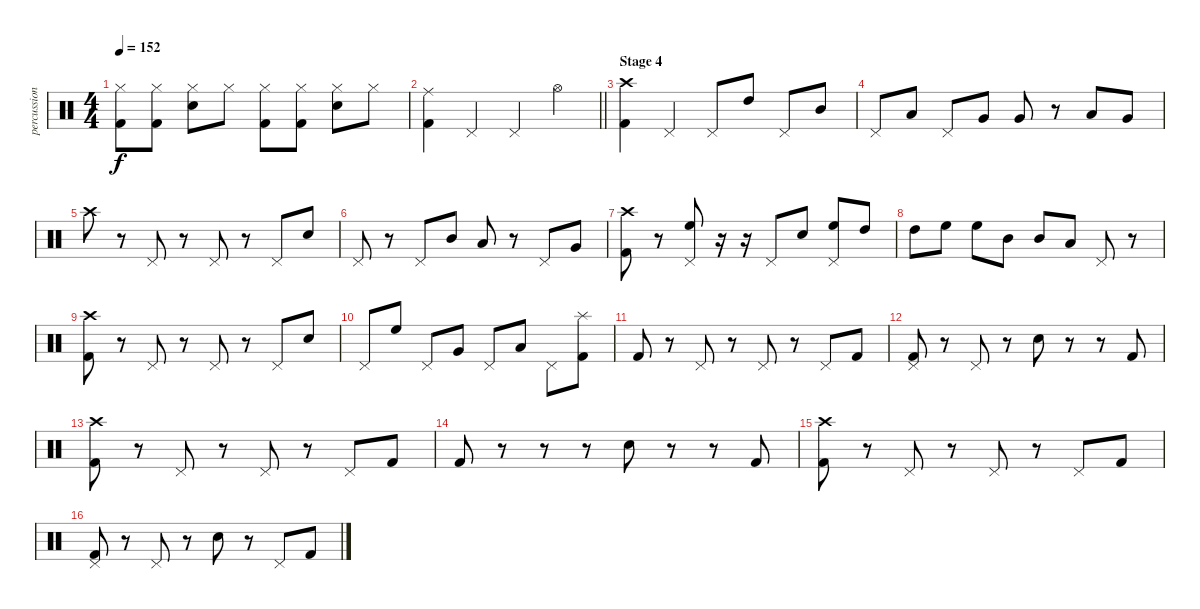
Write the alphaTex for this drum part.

\track ("percussion" "percussion") {instrument percussion}
\staff {score}
\articulation defaults
\ts (4 4)
\tempo 152
\clef neutral
\ks c
("Hi-Hat (closed)" "Kick (hit) 2").8{dy f} ("Hi-Hat (closed)" "Kick (hit) 2").8 ("Electric Snare (hit)" "Hi-Hat (closed)").8 "Hi-Hat (closed)".8 ("Hi-Hat (closed)" "Kick (hit) 2").8 ("Hi-Hat (closed)" "Kick (hit) 2").8 ("Electric Snare (hit)" "Hi-Hat (closed)").8 "Hi-Hat (closed)".8 |
\barLineRight lightlight
("Ride (middle)" "Kick (hit) 2").4 "Pedal Hi-Hat (hit)".4 "Pedal Hi-Hat (hit)".4 "Hi-Hat (open)".4 |
\section ("" "Stage 4")
("Crash high (hit)" "Kick (hit) 2").4 "Pedal Hi-Hat (hit)".4 "Pedal Hi-Hat (hit)".8 "High Tom (hit)".8 "Pedal Hi-Hat (hit)".8 "Mid Tom (hit)".8 |
"Pedal Hi-Hat (hit)".8 "Low Tom (hit)".8 "Pedal Hi-Hat (hit)".8 "Very Low Tom (hit)".8 "Very Low Tom (hit)".8 r.8 "Low Tom (hit)".8 "Very Low Tom (hit)".8 |
"Crash high (hit)".8 r.8 "Pedal Hi-Hat (hit)".8 r.8 "Pedal Hi-Hat (hit)".8 r.8 "Pedal Hi-Hat (hit)".8 "Electric Snare (hit)".8 |
"Pedal Hi-Hat (hit)".8 r.8 "Pedal Hi-Hat (hit)".8 "Mid Tom (hit)".8 "Low Tom (hit)".8 r.8 "Pedal Hi-Hat (hit)".8 "Very Low Tom (hit)".8 |
("Crash high (hit)" "Kick (hit) 2").8 r.8 ("High Floor Tom (hit)" "Pedal Hi-Hat (hit)").8 r.16 r.16 "Pedal Hi-Hat (hit)".8 "Electric Snare (hit)".8 ("High Floor Tom (hit)" "Pedal Hi-Hat (hit)").8 "High Tom (hit)".8 |
"High Tom (hit)".8 "High Floor Tom (hit)".8 "High Floor Tom (hit)".8 "Mid Tom (hit)".8 "Mid Tom (hit)".8 "Low Tom (hit)".8 "Pedal Hi-Hat (hit)".8 r.8 |
("Crash high (hit)" "Kick (hit) 2").8 r.8 "Pedal Hi-Hat (hit)".8 r.8 "Pedal Hi-Hat (hit)".8 r.8 "Pedal Hi-Hat (hit)".8 "Electric Snare (hit)".8 |
"Pedal Hi-Hat (hit)".8 "High Floor Tom (hit)".8 "Pedal Hi-Hat (hit)".8 "Very Low Tom (hit)".8 "Pedal Hi-Hat (hit)".8 "Low Tom (hit)".8 "Pedal Hi-Hat (hit)".8 ("Splash (hit)" "Kick (hit) 2").8 |
"Kick (hit) 2".8 r.8 "Pedal Hi-Hat (hit)".8 r.8 "Pedal Hi-Hat (hit)".8 r.8 "Pedal Hi-Hat (hit)".8 "Kick (hit) 2".8 |
("Pedal Hi-Hat (hit)" "Kick (hit) 2").8 r.8 "Pedal Hi-Hat (hit)".8 r.8 "Electric Snare (hit)".8 r.8 r.8 "Kick (hit) 2".8 |
("Crash high (hit)" "Kick (hit) 2").8 r.8 "Pedal Hi-Hat (hit)".8 r.8 "Pedal Hi-Hat (hit)".8 r.8 "Pedal Hi-Hat (hit)".8 "Kick (hit) 2".8 |
"Kick (hit) 2".8 r.8 r.8 r.8 "Electric Snare (hit)".8 r.8 r.8 "Kick (hit) 2".8 |
("Crash high (hit)" "Kick (hit) 2").8 r.8 "Pedal Hi-Hat (hit)".8 r.8 "Pedal Hi-Hat (hit)".8 r.8 "Pedal Hi-Hat (hit)".8 "Kick (hit) 2".8 |
("Pedal Hi-Hat (hit)" "Kick (hit) 2").8 r.8 "Pedal Hi-Hat (hit)".8 r.8 "Electric Snare (hit)".8 r.8 "Pedal Hi-Hat (hit)".8 "Kick (hit) 2".8
